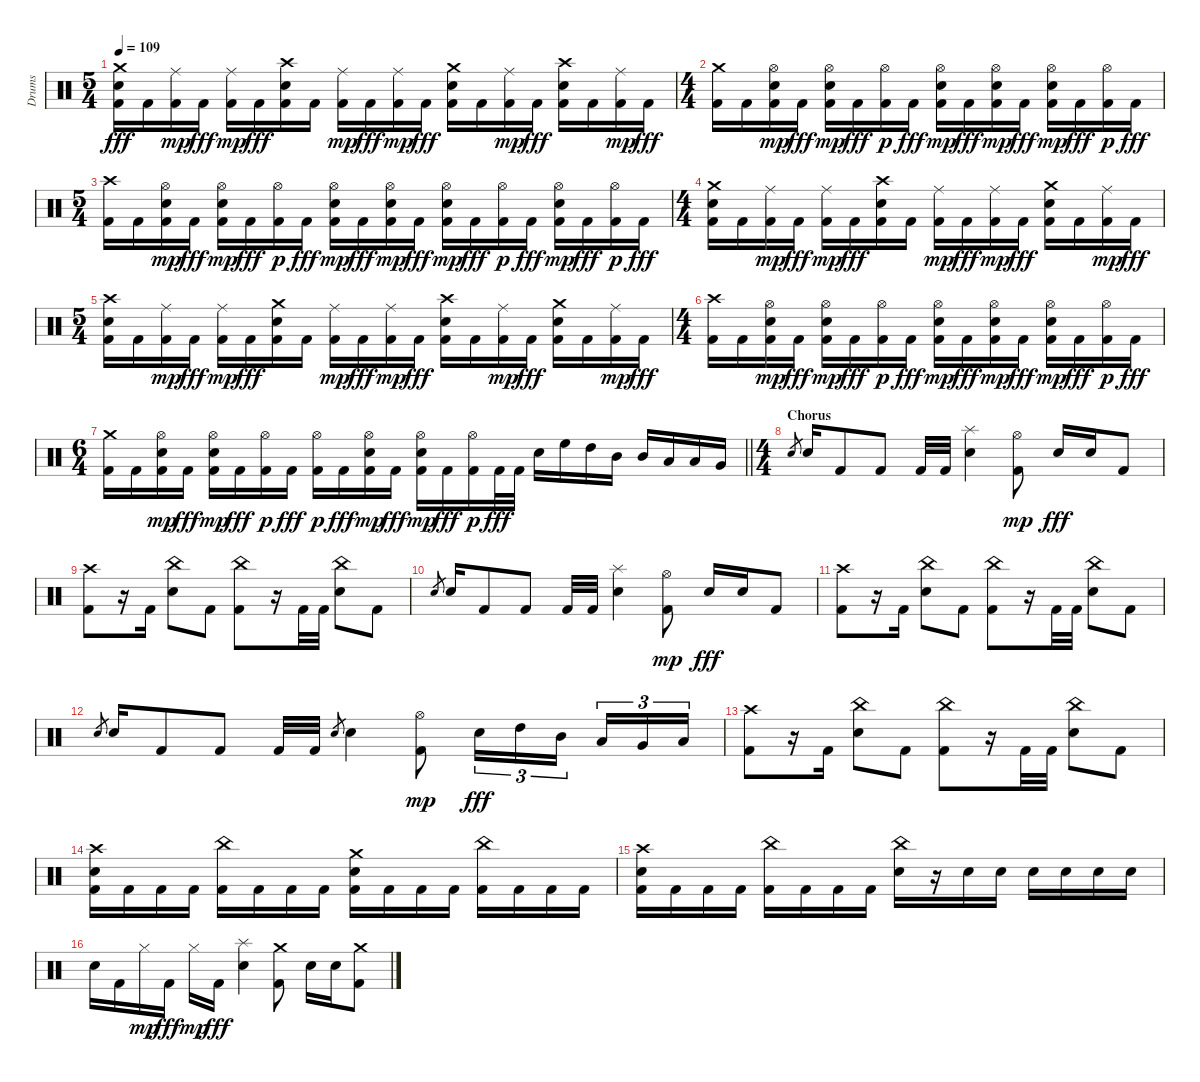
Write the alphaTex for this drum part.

\track ("Drums" "Drums") {instrument percussion}
\staff {score}
\articulation defaults
\ts (5 4)
\tempo 109
\clef neutral
\ks c
("Kick (hit) 2" "Electric Snare (hit)" "Crash medium (hit)").16{dy fff} "Kick (hit) 2".16 ("Kick (hit) 2" "Ride (middle)").16{dy mp} "Kick (hit) 2".16{dy fff} ("Kick (hit) 2" "Ride (middle)").16{dy mp} "Kick (hit) 2".16{dy fff} ("Kick (hit) 2" "Electric Snare (hit)" "Crash high (hit)").16 "Kick (hit) 2".16 ("Kick (hit) 2" "Ride (middle)").16{dy mp} "Kick (hit) 2".16{dy fff} ("Kick (hit) 2" "Ride (middle)").16{dy mp} "Kick (hit) 2".16{dy fff} ("Kick (hit) 2" "Electric Snare (hit)" "Crash medium (hit)").16 "Kick (hit) 2".16 ("Kick (hit) 2" "Ride (middle)").16{dy mp} "Kick (hit) 2".16{dy fff} ("Kick (hit) 2" "Electric Snare (hit)" "Crash high (hit)").16 "Kick (hit) 2".16 ("Kick (hit) 2" "Ride (middle)").16{dy mp} "Kick (hit) 2".16{dy fff} |
\ts (4 4)
("Kick (hit) 2" "Crash medium (hit)").16 "Kick (hit) 2".16 ("Kick (hit) 2" "Electric Snare (hit)" "Hi-Hat (open)").16{dy mp} "Kick (hit) 2".16{dy fff} ("Kick (hit) 2" "Electric Snare (hit)" "Hi-Hat (open)").16{dy mp} "Kick (hit) 2".16{dy fff} ("Kick (hit) 2" "Hi-Hat (open)").16{dy p} "Kick (hit) 2".16{dy fff} ("Kick (hit) 2" "Electric Snare (hit)" "Hi-Hat (open)").16{dy mp} "Kick (hit) 2".16{dy fff} ("Kick (hit) 2" "Electric Snare (hit)" "Hi-Hat (open)").16{dy mp} "Kick (hit) 2".16{dy fff} ("Kick (hit) 2" "Electric Snare (hit)" "Hi-Hat (open)").16{dy mp} "Kick (hit) 2".16{dy fff} ("Kick (hit) 2" "Hi-Hat (open)").16{dy p} "Kick (hit) 2".16{dy fff} |
\ts (5 4)
("Kick (hit) 2" "Crash high (hit)").16 "Kick (hit) 2".16 ("Kick (hit) 2" "Electric Snare (hit)" "Hi-Hat (open)").16{dy mp} "Kick (hit) 2".16{dy fff} ("Kick (hit) 2" "Electric Snare (hit)" "Hi-Hat (open)").16{dy mp} "Kick (hit) 2".16{dy fff} ("Kick (hit) 2" "Hi-Hat (open)").16{dy p} "Kick (hit) 2".16{dy fff} ("Kick (hit) 2" "Electric Snare (hit)" "Hi-Hat (open)").16{dy mp} "Kick (hit) 2".16{dy fff} ("Kick (hit) 2" "Electric Snare (hit)" "Hi-Hat (open)").16{dy mp} "Kick (hit) 2".16{dy fff} ("Kick (hit) 2" "Electric Snare (hit)" "Hi-Hat (open)").16{dy mp} "Kick (hit) 2".16{dy fff} ("Kick (hit) 2" "Hi-Hat (open)").16{dy p} "Kick (hit) 2".16{dy fff} ("Kick (hit) 2" "Electric Snare (hit)" "Hi-Hat (open)").16{dy mp} "Kick (hit) 2".16{dy fff} ("Kick (hit) 2" "Hi-Hat (open)").16{dy p} "Kick (hit) 2".16{dy fff} |
\ts (4 4)
("Kick (hit) 2" "Electric Snare (hit)" "Crash medium (hit)").16 "Kick (hit) 2".16 ("Kick (hit) 2" "Ride (middle)").16{dy mp} "Kick (hit) 2".16{dy fff} ("Kick (hit) 2" "Ride (middle)").16{dy mp} "Kick (hit) 2".16{dy fff} ("Kick (hit) 2" "Electric Snare (hit)" "Crash high (hit)").16 "Kick (hit) 2".16 ("Kick (hit) 2" "Ride (middle)").16{dy mp} "Kick (hit) 2".16{dy fff} ("Kick (hit) 2" "Ride (middle)").16{dy mp} "Kick (hit) 2".16{dy fff} ("Kick (hit) 2" "Electric Snare (hit)" "Crash medium (hit)").16 "Kick (hit) 2".16 ("Kick (hit) 2" "Ride (middle)").16{dy mp} "Kick (hit) 2".16{dy fff} |
\ts (5 4)
("Kick (hit) 2" "Electric Snare (hit)" "Crash high (hit)").16 "Kick (hit) 2".16 ("Kick (hit) 2" "Ride (middle)").16{dy mp} "Kick (hit) 2".16{dy fff} ("Kick (hit) 2" "Ride (middle)").16{dy mp} "Kick (hit) 2".16{dy fff} ("Kick (hit) 2" "Electric Snare (hit)" "Crash medium (hit)").16 "Kick (hit) 2".16 ("Kick (hit) 2" "Ride (middle)").16{dy mp} "Kick (hit) 2".16{dy fff} ("Kick (hit) 2" "Ride (middle)").16{dy mp} "Kick (hit) 2".16{dy fff} ("Kick (hit) 2" "Electric Snare (hit)" "Crash high (hit)").16 "Kick (hit) 2".16 ("Kick (hit) 2" "Ride (middle)").16{dy mp} "Kick (hit) 2".16{dy fff} ("Kick (hit) 2" "Electric Snare (hit)" "Crash medium (hit)").16 "Kick (hit) 2".16 ("Kick (hit) 2" "Ride (middle)").16{dy mp} "Kick (hit) 2".16{dy fff} |
\ts (4 4)
("Kick (hit) 2" "Crash high (hit)").16 "Kick (hit) 2".16 ("Kick (hit) 2" "Electric Snare (hit)" "Hi-Hat (open)").16{dy mp} "Kick (hit) 2".16{dy fff} ("Kick (hit) 2" "Electric Snare (hit)" "Hi-Hat (open)").16{dy mp} "Kick (hit) 2".16{dy fff} ("Kick (hit) 2" "Hi-Hat (open)").16{dy p} "Kick (hit) 2".16{dy fff} ("Kick (hit) 2" "Electric Snare (hit)" "Hi-Hat (open)").16{dy mp} "Kick (hit) 2".16{dy fff} ("Kick (hit) 2" "Electric Snare (hit)" "Hi-Hat (open)").16{dy mp} "Kick (hit) 2".16{dy fff} ("Kick (hit) 2" "Electric Snare (hit)" "Hi-Hat (open)").16{dy mp} "Kick (hit) 2".16{dy fff} ("Kick (hit) 2" "Hi-Hat (open)").16{dy p} "Kick (hit) 2".16{dy fff} |
\ts (6 4)
\barLineRight lightlight
("Kick (hit) 2" "Crash medium (hit)").16 "Kick (hit) 2".16 ("Kick (hit) 2" "Electric Snare (hit)" "Hi-Hat (open)").16{dy mp} "Kick (hit) 2".16{dy fff} ("Kick (hit) 2" "Electric Snare (hit)" "Hi-Hat (open)").16{dy mp} "Kick (hit) 2".16{dy fff} ("Kick (hit) 2" "Hi-Hat (open)").16{dy p} "Kick (hit) 2".16{dy fff} ("Kick (hit) 2" "Hi-Hat (open)").16{dy p} "Kick (hit) 2".16{dy fff} ("Kick (hit) 2" "Electric Snare (hit)" "Hi-Hat (open)").16{dy mp} "Kick (hit) 2".16{dy fff} ("Kick (hit) 2" "Electric Snare (hit)" "Hi-Hat (open)").16{dy mp} "Kick (hit) 2".16{dy fff} ("Kick (hit) 2" "Hi-Hat (open)").16{dy p} "Kick (hit) 2".32{dy fff} "Kick (hit) 2".32 "Electric Snare (hit)".16 "High Floor Tom (hit)".16 "High Tom (hit)".16 "Mid Tom (hit)".16 "Mid Tom (hit)".16 "Low Tom (hit)".16 "Low Tom (hit)".16 "Very Low Tom (hit)".16 |
\ts (4 4)
\section ("" "Chorus")
"Electric Snare (hit)".8{gr} "Electric Snare (hit)".16 "Kick (hit) 2".8 "Kick (hit) 2".8 "Kick (hit) 2".32 "Kick (hit) 2".32 ("Electric Snare (hit)" "Splash (hit)").4 ("Kick (hit) 2" "Hi-Hat (open)").8{dy mp} "Electric Snare (hit)".16{dy fff} "Electric Snare (hit)".16 "Kick (hit) 2".8 |
("Kick (hit) 2" "Crash high (hit)").8 r.16 "Kick (hit) 2".16 ("Electric Snare (hit)" "China (hit)").8 "Kick (hit) 2".8 ("Kick (hit) 2" "China (hit)").8 r.16 "Kick (hit) 2".32 "Kick (hit) 2".32 ("Electric Snare (hit)" "China (hit)").8 "Kick (hit) 2".8 |
"Electric Snare (hit)".8{gr} "Electric Snare (hit)".16 "Kick (hit) 2".8 "Kick (hit) 2".8 "Kick (hit) 2".32 "Kick (hit) 2".32 ("Electric Snare (hit)" "Splash (hit)").4 ("Kick (hit) 2" "Hi-Hat (open)").8{dy mp} "Electric Snare (hit)".16{dy fff} "Electric Snare (hit)".16 "Kick (hit) 2".8 |
("Kick (hit) 2" "Crash high (hit)").8 r.16 "Kick (hit) 2".16 ("Electric Snare (hit)" "China (hit)").8 "Kick (hit) 2".8 ("Kick (hit) 2" "China (hit)").8 r.16 "Kick (hit) 2".32 "Kick (hit) 2".32 ("Electric Snare (hit)" "China (hit)").8 "Kick (hit) 2".8 |
"Electric Snare (hit)".8{gr} "Electric Snare (hit)".16 "Kick (hit) 2".8 "Kick (hit) 2".8 "Kick (hit) 2".32 "Kick (hit) 2".32 "Electric Snare (hit)".8{gr} "Electric Snare (hit)".4 ("Kick (hit) 2" "Hi-Hat (open)").8{dy mp} "Electric Snare (hit)".16{tu (3 2) dy fff} "High Tom (hit)".16{tu (3 2)} "Mid Tom (hit)".16{tu (3 2) beam splitsecondary} "Low Tom (hit)".16{tu (3 2)} "Very Low Tom (hit)".16{tu (3 2)} "Low Floor Tom (hit)".16{tu (3 2)} |
("Kick (hit) 2" "Crash high (hit)").8 r.16 "Kick (hit) 2".16 ("Electric Snare (hit)" "China (hit)").8 "Kick (hit) 2".8 ("Kick (hit) 2" "China (hit)").8 r.16 "Kick (hit) 2".32 "Kick (hit) 2".32 ("Electric Snare (hit)" "China (hit)").8 "Kick (hit) 2".8 |
("Kick (hit) 2" "Electric Snare (hit)" "Crash high (hit)").16 "Kick (hit) 2".16 "Kick (hit) 2".16 "Kick (hit) 2".16 ("Kick (hit) 2" "China (hit)").16 "Kick (hit) 2".16 "Kick (hit) 2".16 "Kick (hit) 2".16 ("Kick (hit) 2" "Electric Snare (hit)" "Crash medium (hit)").16 "Kick (hit) 2".16 "Kick (hit) 2".16 "Kick (hit) 2".16 ("Kick (hit) 2" "China (hit)").16 "Kick (hit) 2".16 "Kick (hit) 2".16 "Kick (hit) 2".16 |
("Kick (hit) 2" "Electric Snare (hit)" "Crash high (hit)").16 "Kick (hit) 2".16 "Kick (hit) 2".16 "Kick (hit) 2".16 ("Kick (hit) 2" "China (hit)").16 "Kick (hit) 2".16 "Kick (hit) 2".16 "Kick (hit) 2".16 ("Electric Snare (hit)" "China (hit)").16 r.16 "Electric Snare (hit)".16 "Electric Snare (hit)".16 "Electric Snare (hit)".16 "Electric Snare (hit)".16 "Electric Snare (hit)".16 "Electric Snare (hit)".16 |
"Electric Snare (hit)".16 "Kick (hit) 2".16 "Hi-Hat (closed)".16{dy mp} "Kick (hit) 2".16{dy fff} "Hi-Hat (closed)".16{dy mp} "Kick (hit) 2".16{dy fff} ("Electric Snare (hit)" "Splash (hit)").4 ("Kick (hit) 2" "Crash medium (hit)").8 "Electric Snare (hit)".16 "Electric Snare (hit)".16 ("Kick (hit) 2" "Crash medium (hit)").8
